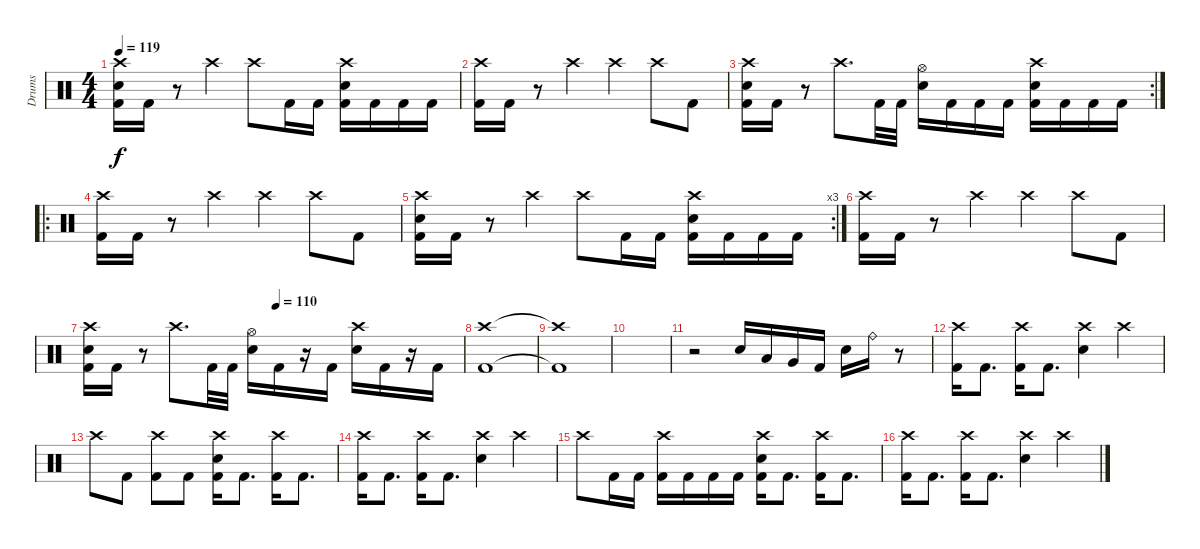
\track ("Drums" "Drums") {instrument percussion}
\staff {score}
\articulation defaults
\ts (4 4)
\tempo 119
\clef neutral
\ks c
("Crash high (hit)" "Electric Snare (hit)" "Kick (hit) 2").16{dy f} "Kick (hit) 2".16 r.8 "Crash high (hit)".4 "Crash high (hit)".8 "Kick (hit) 2".16 "Kick (hit) 2".16 ("Crash high (hit)" "Electric Snare (hit)" "Kick (hit) 2").16 "Kick (hit) 2".16 "Kick (hit) 2".16 "Kick (hit) 2".16 |
("Crash high (hit)" "Kick (hit) 2").16 "Kick (hit) 2".16 r.8 "Crash high (hit)".4 "Crash high (hit)".4 "Crash high (hit)".8 "Kick (hit) 2".8 |
\rc 2
("Crash high (hit)" "Electric Snare (hit)" "Kick (hit) 2").16 "Kick (hit) 2".16 r.8 "Crash high (hit)".8{d} "Kick (hit) 2".32 "Kick (hit) 2".32 ("Hi-Hat (open)" "Electric Snare (hit)").16 "Kick (hit) 2".16 "Kick (hit) 2".16 "Kick (hit) 2".16 ("Crash high (hit)" "Electric Snare (hit)" "Kick (hit) 2").16 "Kick (hit) 2".16 "Kick (hit) 2".16 "Kick (hit) 2".16 |
\ro
("Crash high (hit)" "Kick (hit) 2").16 "Kick (hit) 2".16 r.8 "Crash high (hit)".4 "Crash high (hit)".4 "Crash high (hit)".8 "Kick (hit) 2".8 |
\rc 3
("Crash high (hit)" "Electric Snare (hit)" "Kick (hit) 2").16 "Kick (hit) 2".16 r.8 "Crash high (hit)".4 "Crash high (hit)".8 "Kick (hit) 2".16 "Kick (hit) 2".16 ("Crash high (hit)" "Electric Snare (hit)" "Kick (hit) 2").16 "Kick (hit) 2".16 "Kick (hit) 2".16 "Kick (hit) 2".16 |
("Crash high (hit)" "Kick (hit) 2").16 "Kick (hit) 2".16 r.8 "Crash high (hit)".4 "Crash high (hit)".4 "Crash high (hit)".8 "Kick (hit) 2".8 |
\tempo (110 0.5)
("Crash high (hit)" "Electric Snare (hit)" "Kick (hit) 2").16 "Kick (hit) 2".16 r.8 "Crash high (hit)".8{d} "Kick (hit) 2".32 "Kick (hit) 2".32 ("Hi-Hat (open)" "Electric Snare (hit)").16 "Kick (hit) 2".16 r.16 "Kick (hit) 2".16 ("Crash high (hit)" "Electric Snare (hit)").16 "Kick (hit) 2".16 r.16 "Kick (hit) 2".16 |
("Crash high (hit)" "Kick (hit) 2").1 |
("Crash high (hit)"{t} "Kick (hit) 2"{t}).1 |
|
r.2 "Electric Snare (hit)".16 "Low Tom (hit)".16 "Very Low Tom (hit)".16 "Kick (hit) 2".16 "Electric Snare (hit)".16 "Ride (bell)".16 r.8 |
("Crash high (hit)" "Kick (hit) 2").16 "Kick (hit) 2".8{d} ("Crash high (hit)" "Kick (hit) 2").16 "Kick (hit) 2".8{d} ("Crash high (hit)" "Electric Snare (hit)").4 "Crash high (hit)".4 |
"Crash high (hit)".8 "Kick (hit) 2".8 ("Crash high (hit)" "Kick (hit) 2").8 "Kick (hit) 2".8 ("Crash high (hit)" "Electric Snare (hit)" "Kick (hit) 2").16 "Kick (hit) 2".8{d} ("Crash high (hit)" "Kick (hit) 2").16 "Kick (hit) 2".8{d} |
("Crash high (hit)" "Kick (hit) 2").16 "Kick (hit) 2".8{d} ("Crash high (hit)" "Kick (hit) 2").16 "Kick (hit) 2".8{d} ("Crash high (hit)" "Electric Snare (hit)").4 "Crash high (hit)".4 |
"Crash high (hit)".8 "Kick (hit) 2".16 "Kick (hit) 2".16 ("Crash high (hit)" "Kick (hit) 2").16 "Kick (hit) 2".16 "Kick (hit) 2".16 "Kick (hit) 2".16 ("Crash high (hit)" "Electric Snare (hit)" "Kick (hit) 2").16 "Kick (hit) 2".8{d} ("Crash high (hit)" "Kick (hit) 2").16 "Kick (hit) 2".8{d} |
("Crash high (hit)" "Kick (hit) 2").16 "Kick (hit) 2".8{d} ("Crash high (hit)" "Kick (hit) 2").16 "Kick (hit) 2".8{d} ("Crash high (hit)" "Electric Snare (hit)").4 "Crash high (hit)".4
